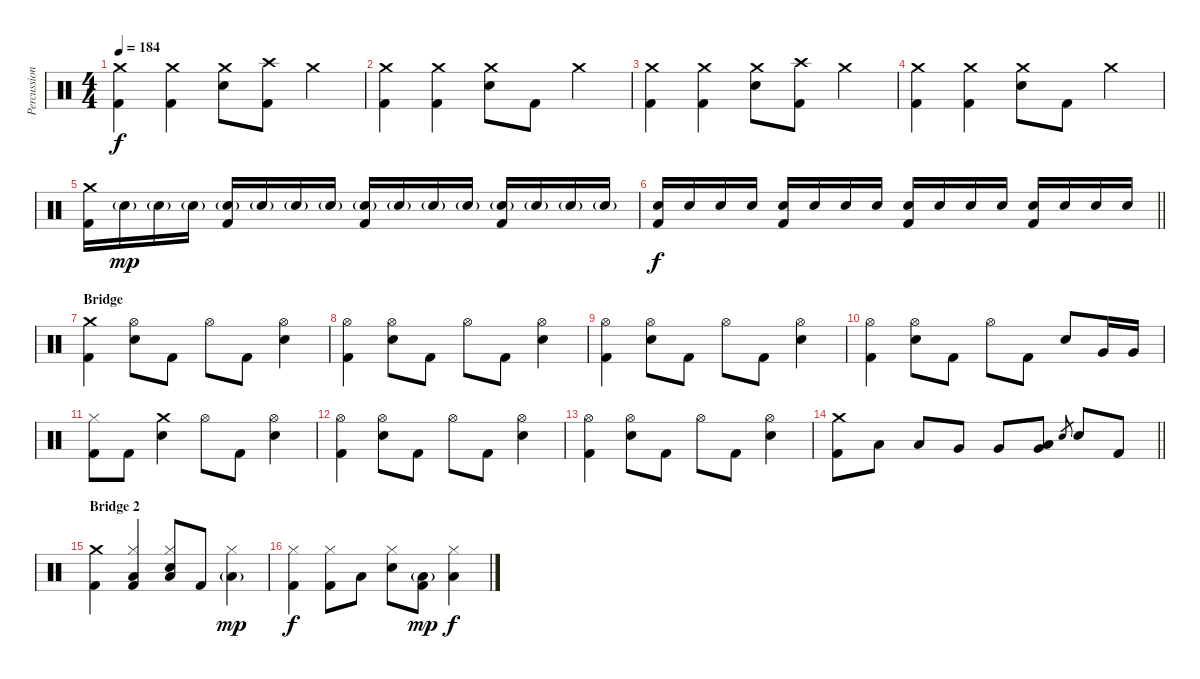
\track ("Percussions" "Percussion") {instrument percussion}
\staff {score}
\articulation defaults
\ts (4 4)
\tempo 184
\clef neutral
\ks c
("Crash medium (hit)" "Kick (hit) 2").4{dy f} ("Crash medium (hit)" "Kick (hit) 2").4 ("Crash medium (hit)" "Electric Snare (hit)").8 ("Crash high (hit)" "Kick (hit) 2").8 "Crash medium (hit)".4 |
("Crash medium (hit)" "Kick (hit) 2").4 ("Crash medium (hit)" "Kick (hit) 2").4 ("Crash medium (hit)" "Electric Snare (hit)").8 "Kick (hit) 2".8 "Crash medium (hit)".4 |
("Crash medium (hit)" "Kick (hit) 2").4 ("Crash medium (hit)" "Kick (hit) 2").4 ("Crash medium (hit)" "Electric Snare (hit)").8 ("Crash high (hit)" "Kick (hit) 2").8 "Crash medium (hit)".4 |
("Crash medium (hit)" "Kick (hit) 2").4 ("Crash medium (hit)" "Kick (hit) 2").4 ("Crash medium (hit)" "Electric Snare (hit)").8 "Kick (hit) 2".8 "Crash medium (hit)".4 |
("Crash medium (hit)" "Kick (hit) 2").16 "Electric Snare (hit)"{g}.16{dy mp} "Electric Snare (hit)"{g}.16 "Electric Snare (hit)"{g}.16 ("Electric Snare (hit)"{g} "Kick (hit) 2").16 "Electric Snare (hit)"{g}.16 "Electric Snare (hit)"{g}.16 "Electric Snare (hit)"{g}.16 ("Electric Snare (hit)"{g} "Kick (hit) 2").16 "Electric Snare (hit)"{g}.16 "Electric Snare (hit)"{g}.16 "Electric Snare (hit)"{g}.16 ("Electric Snare (hit)"{g} "Kick (hit) 2").16 "Electric Snare (hit)"{g}.16 "Electric Snare (hit)"{g}.16 "Electric Snare (hit)"{g}.16 |
\barLineRight lightlight
("Electric Snare (hit)" "Kick (hit) 2").16{dy f volume 8} "Electric Snare (hit)".16{volume 12} "Electric Snare (hit)".16 "Electric Snare (hit)".16 ("Electric Snare (hit)" "Kick (hit) 2").16 "Electric Snare (hit)".16 "Electric Snare (hit)".16 "Electric Snare (hit)".16 ("Electric Snare (hit)" "Kick (hit) 2").16 "Electric Snare (hit)".16 "Electric Snare (hit)".16 "Electric Snare (hit)".16 ("Electric Snare (hit)" "Kick (hit) 2").16 "Electric Snare (hit)".16 "Electric Snare (hit)".16 "Electric Snare (hit)".16 |
\section ("" "Bridge")
("Crash medium (hit)" "Kick (hit) 2").4 ("Hi-Hat (open)" "Electric Snare (hit)").8 "Kick (hit) 2".8 "Hi-Hat (open)".8 "Kick (hit) 2".8 ("Hi-Hat (open)" "Electric Snare (hit)").4 |
("Hi-Hat (open)" "Kick (hit) 2").4 ("Hi-Hat (open)" "Electric Snare (hit)").8 "Kick (hit) 2".8 "Hi-Hat (open)".8 "Kick (hit) 2".8 ("Hi-Hat (open)" "Electric Snare (hit)").4 |
("Hi-Hat (open)" "Kick (hit) 2").4 ("Hi-Hat (open)" "Electric Snare (hit)").8 "Kick (hit) 2".8 "Hi-Hat (open)".8 "Kick (hit) 2".8 ("Hi-Hat (open)" "Electric Snare (hit)").4 |
("Hi-Hat (open)" "Kick (hit) 2").4 ("Hi-Hat (open)" "Electric Snare (hit)").8 "Kick (hit) 2".8 "Hi-Hat (open)".8 "Kick (hit) 2".8 "Electric Snare (hit)".8 "Very Low Tom (hit)".16 "Very Low Tom (hit)".16 |
("Hi-Hat (closed)" "Kick (hit) 2").8 "Kick (hit) 2".8 ("Crash medium (hit)" "Electric Snare (hit)").4 "Hi-Hat (open)".8 "Kick (hit) 2".8 ("Hi-Hat (open)" "Electric Snare (hit)").4 |
("Hi-Hat (open)" "Kick (hit) 2").4 ("Hi-Hat (open)" "Electric Snare (hit)").8 "Kick (hit) 2".8 "Hi-Hat (open)".8 "Kick (hit) 2".8 ("Hi-Hat (open)" "Electric Snare (hit)").4 |
("Hi-Hat (open)" "Kick (hit) 2").4 ("Hi-Hat (open)" "Electric Snare (hit)").8 "Kick (hit) 2".8 "Hi-Hat (open)".8 "Kick (hit) 2".8 ("Hi-Hat (open)" "Electric Snare (hit)").4 |
\barLineRight lightlight
("Crash medium (hit)" "Kick (hit) 2").8 "Low Floor Tom (hit)".8 "Low Floor Tom (hit)".8 "Very Low Tom (hit)".8 "Very Low Tom (hit)".8 ("Low Tom (hit)" "Very Low Tom (hit)").8 "Electric Snare (hit)".8{gr} "Electric Snare (hit)".8 "Kick (hit) 2".8 |
\section ("" "Bridge 2")
("Crash medium (hit)" "Kick (hit) 2").4 ("Hi-Hat (closed)" "Low Floor Tom (hit)" "Kick (hit) 2").4 ("Hi-Hat (closed)" "Low Floor Tom (hit)" "Electric Snare (hit)").8 "Kick (hit) 2".8 ("Hi-Hat (closed)" "Low Floor Tom (hit)"{g}).4{dy mp} |
("Hi-Hat (closed)" "Kick (hit) 2").4{dy f} ("Hi-Hat (closed)" "Kick (hit) 2").8 "Low Floor Tom (hit)".8 ("Hi-Hat (closed)" "Electric Snare (hit)").8 ("Low Floor Tom (hit)"{g} "Kick (hit) 2").8{dy mp} ("Hi-Hat (closed)" "Low Floor Tom (hit)").4{dy f}
